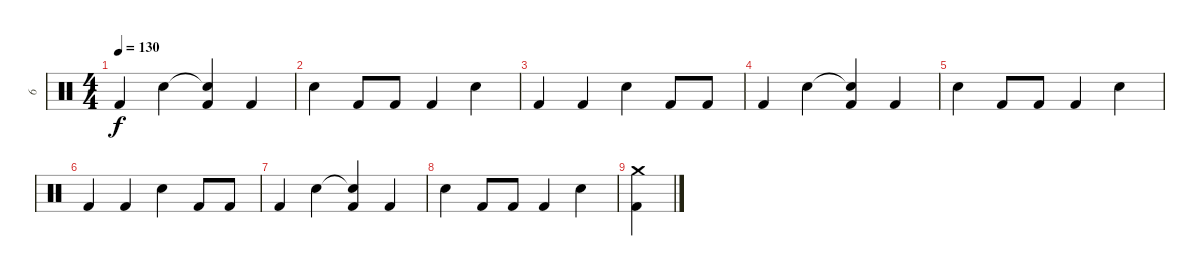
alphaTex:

\track ("6" "6") {instrument percussion}
\staff {score}
\articulation defaults
\ts (4 4)
\tempo 130
\clef neutral
\ks c "Kick (hit) 2".4{dy f} "Electric Snare (hit)".4
("Electric Snare (hit)"{t} "Kick (hit) 2").4 "Kick (hit) 2".4 |
"Electric Snare (hit)".4 "Kick (hit) 2".8 "Kick (hit) 2".8 "Kick (hit) 2".4 "Electric Snare (hit)".4 |
"Kick (hit) 2".4 "Kick (hit) 2".4 "Electric Snare (hit)".4 "Kick (hit) 2".8 "Kick (hit) 2".8 |
"Kick (hit) 2".4 "Electric Snare (hit)".4 ("Electric Snare (hit)"{t} "Kick (hit) 2").4 "Kick (hit) 2".4 |
"Electric Snare (hit)".4 "Kick (hit) 2".8 "Kick (hit) 2".8 "Kick (hit) 2".4 "Electric Snare (hit)".4 |
"Kick (hit) 2".4 "Kick (hit) 2".4 "Electric Snare (hit)".4 "Kick (hit) 2".8 "Kick (hit) 2".8 |
"Kick (hit) 2".4 "Electric Snare (hit)".4 ("Electric Snare (hit)"{t} "Kick (hit) 2").4 "Kick (hit) 2".4 |
"Electric Snare (hit)".4 "Kick (hit) 2".8 "Kick (hit) 2".8 "Kick (hit) 2".4 "Electric Snare (hit)".4 |
("Crash medium (hit)" "Kick (hit) 2").4
